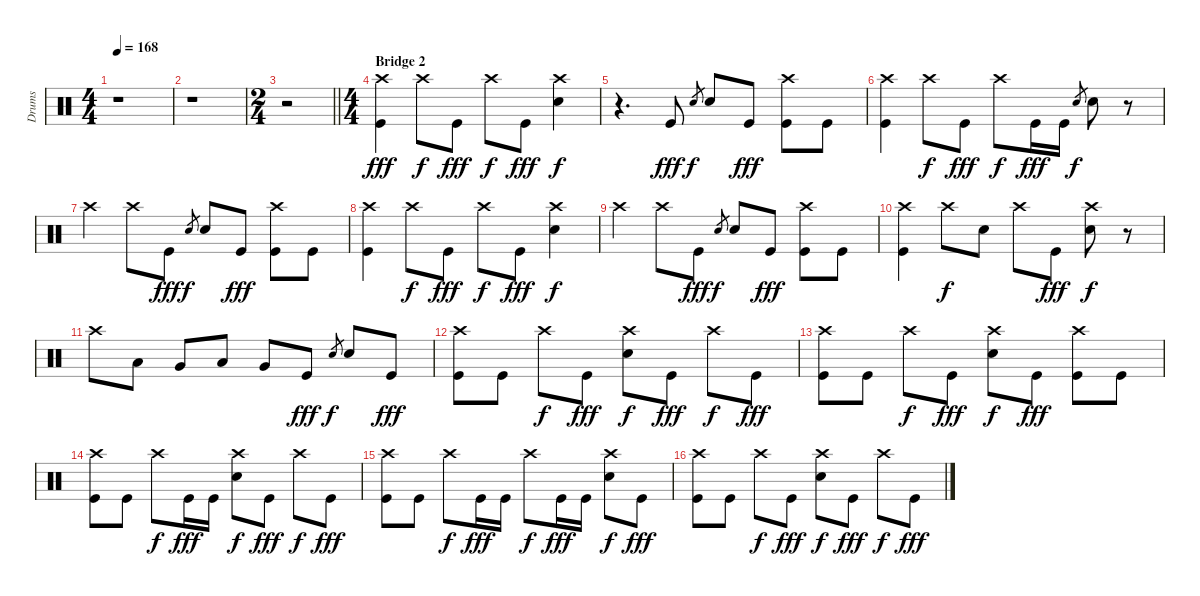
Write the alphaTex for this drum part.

\track ("Drums" "Drums") {instrument percussion}
\staff {score}
\articulation defaults
\ts (4 4)
\tempo 168
\clef neutral
\ks c
r.1{dy fff} |
r.1 |
\ts (2 4)
\barLineRight lightlight
r.2 |
\ts (4 4)
\section ("" "Bridge 2")
("Crash high (hit)" "Kick (hit)").4 "Crash high (hit)".8{dy f} "Kick (hit)".8{dy fff} "Crash high (hit)".8{dy f} "Kick (hit)".8{dy fff} ("Crash high (hit)" "Snare (hit) 2").4{dy f} |
r.4{d} "Kick (hit)".8{dy fff} "Snare (hit) 2".8{gr dy f} "Snare (hit) 2".8 "Kick (hit)".8{dy fff} ("Crash high (hit)" "Kick (hit)").8 "Kick (hit)".8 |
("Crash high (hit)" "Kick (hit)").4 "Crash high (hit)".8{dy f} "Kick (hit)".8{dy fff} "Crash high (hit)".8{dy f} "Kick (hit)".16{dy fff} "Kick (hit)".16 "Snare (hit) 2".8{gr dy f} "Snare (hit) 2".8 r.8 |
"Crash high (hit)".4 "Crash high (hit)".8 "Kick (hit)".8{dy fff} "Snare (hit) 2".8{gr dy f} "Snare (hit) 2".8 "Kick (hit)".8{dy fff} ("Crash high (hit)" "Kick (hit)").8 "Kick (hit)".8 |
("Crash high (hit)" "Kick (hit)").4 "Crash high (hit)".8{dy f} "Kick (hit)".8{dy fff} "Crash high (hit)".8{dy f} "Kick (hit)".8{dy fff} ("Crash high (hit)" "Snare (hit) 2").4{dy f} |
"Crash high (hit)".4 "Crash high (hit)".8 "Kick (hit)".8{dy fff} "Snare (hit) 2".8{gr dy f} "Snare (hit) 2".8 "Kick (hit)".8{dy fff} ("Crash high (hit)" "Kick (hit)").8 "Kick (hit)".8 |
("Crash high (hit)" "Kick (hit)").4 "Crash high (hit)".8{dy f} "Snare (hit) 2".8 "Crash high (hit)".8 "Kick (hit)".8{dy fff} ("Crash high (hit)" "Snare (hit) 2").8{dy f} r.8 |
"Crash high (hit)".8 "Low Tom (hit)".8 "Very Low Tom (hit)".8 "Low Floor Tom (hit)".8 "Very Low Tom (hit)".8 "Kick (hit)".8{dy fff} "Snare (hit) 2".8{gr dy f} "Snare (hit) 2".8 "Kick (hit)".8{dy fff} |
("Crash high (hit)" "Kick (hit)").8 "Kick (hit)".8 "Crash high (hit)".8{dy f} "Kick (hit)".8{dy fff} ("Crash high (hit)" "Snare (hit) 2").8{dy f} "Kick (hit)".8{dy fff} "Crash high (hit)".8{dy f} "Kick (hit)".8{dy fff} |
("Crash high (hit)" "Kick (hit)").8 "Kick (hit)".8 "Crash high (hit)".8{dy f} "Kick (hit)".8{dy fff} ("Crash high (hit)" "Snare (hit) 2").8{dy f} "Kick (hit)".8{dy fff} ("Crash high (hit)" "Kick (hit)").8 "Kick (hit)".8 |
("Crash high (hit)" "Kick (hit)").8 "Kick (hit)".8 "Crash high (hit)".8{dy f} "Kick (hit)".16{dy fff} "Kick (hit)".16 ("Crash high (hit)" "Snare (hit) 2").8{dy f} "Kick (hit)".8{dy fff} "Crash high (hit)".8{dy f} "Kick (hit)".8{dy fff} |
("Crash high (hit)" "Kick (hit)").8 "Kick (hit)".8 "Crash high (hit)".8{dy f} "Kick (hit)".16{dy fff} "Kick (hit)".16 "Crash high (hit)".8{dy f} "Kick (hit)".16{dy fff} "Kick (hit)".16 ("Crash high (hit)" "Snare (hit) 2").8{dy f} "Kick (hit)".8{dy fff} |
("Crash high (hit)" "Kick (hit)").8 "Kick (hit)".8 "Crash high (hit)".8{dy f} "Kick (hit)".8{dy fff} ("Crash high (hit)" "Snare (hit) 2").8{dy f} "Kick (hit)".8{dy fff} "Crash high (hit)".8{dy f} "Kick (hit)".8{dy fff}
